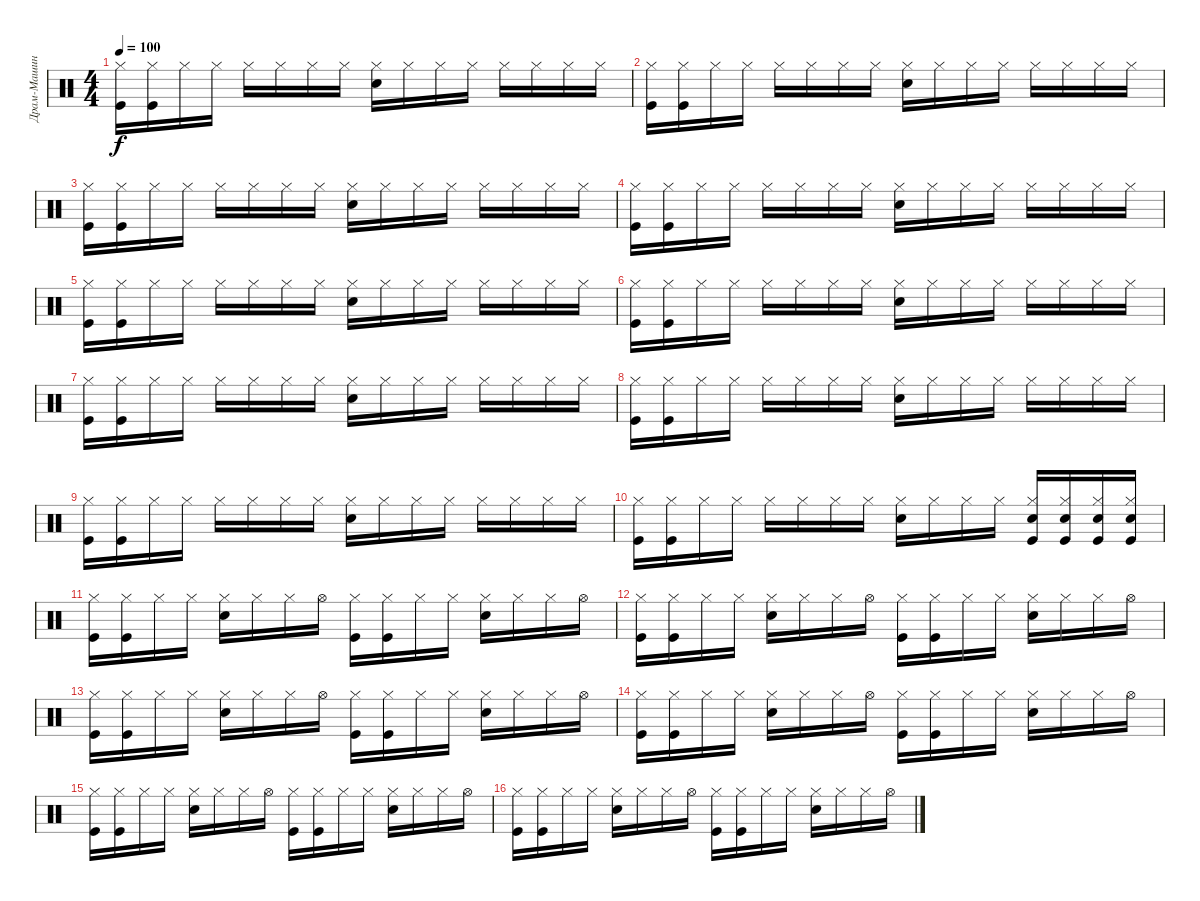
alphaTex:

\track ("Драм-Машина" "Драм-Машин") {instrument percussion}
\staff {score}
\articulation defaults
\ts (4 4)
\tempo 100
\clef neutral
\ks c
("Kick (hit)" "Hi-Hat (closed)").16{dy f} ("Kick (hit)" "Hi-Hat (closed)").16 "Hi-Hat (closed)".16 "Hi-Hat (closed)".16 "Hi-Hat (closed)".16 "Hi-Hat (closed)".16 "Hi-Hat (closed)".16 "Hi-Hat (closed)".16 ("Electric Snare (hit)" "Hi-Hat (closed)").16 "Hi-Hat (closed)".16 "Hi-Hat (closed)".16 "Hi-Hat (closed)".16 "Hi-Hat (closed)".16 "Hi-Hat (closed)".16 "Hi-Hat (closed)".16 "Hi-Hat (closed)".16 |
("Kick (hit)" "Hi-Hat (closed)").16 ("Kick (hit)" "Hi-Hat (closed)").16 "Hi-Hat (closed)".16 "Hi-Hat (closed)".16 "Hi-Hat (closed)".16 "Hi-Hat (closed)".16 "Hi-Hat (closed)".16 "Hi-Hat (closed)".16 ("Electric Snare (hit)" "Hi-Hat (closed)").16 "Hi-Hat (closed)".16 "Hi-Hat (closed)".16 "Hi-Hat (closed)".16 "Hi-Hat (closed)".16 "Hi-Hat (closed)".16 "Hi-Hat (closed)".16 "Hi-Hat (closed)".16 |
("Kick (hit)" "Hi-Hat (closed)").16 ("Kick (hit)" "Hi-Hat (closed)").16 "Hi-Hat (closed)".16 "Hi-Hat (closed)".16 "Hi-Hat (closed)".16 "Hi-Hat (closed)".16 "Hi-Hat (closed)".16 "Hi-Hat (closed)".16 ("Electric Snare (hit)" "Hi-Hat (closed)").16 "Hi-Hat (closed)".16 "Hi-Hat (closed)".16 "Hi-Hat (closed)".16 "Hi-Hat (closed)".16 "Hi-Hat (closed)".16 "Hi-Hat (closed)".16 "Hi-Hat (closed)".16 |
("Kick (hit)" "Hi-Hat (closed)").16 ("Kick (hit)" "Hi-Hat (closed)").16 "Hi-Hat (closed)".16 "Hi-Hat (closed)".16 "Hi-Hat (closed)".16 "Hi-Hat (closed)".16 "Hi-Hat (closed)".16 "Hi-Hat (closed)".16 ("Electric Snare (hit)" "Hi-Hat (closed)").16 "Hi-Hat (closed)".16 "Hi-Hat (closed)".16 "Hi-Hat (closed)".16 "Hi-Hat (closed)".16 "Hi-Hat (closed)".16 "Hi-Hat (closed)".16 "Hi-Hat (closed)".16 |
("Kick (hit)" "Hi-Hat (closed)").16 ("Kick (hit)" "Hi-Hat (closed)").16 "Hi-Hat (closed)".16 "Hi-Hat (closed)".16 "Hi-Hat (closed)".16 "Hi-Hat (closed)".16 "Hi-Hat (closed)".16 "Hi-Hat (closed)".16 ("Electric Snare (hit)" "Hi-Hat (closed)").16 "Hi-Hat (closed)".16 "Hi-Hat (closed)".16 "Hi-Hat (closed)".16 "Hi-Hat (closed)".16 "Hi-Hat (closed)".16 "Hi-Hat (closed)".16 "Hi-Hat (closed)".16 |
("Kick (hit)" "Hi-Hat (closed)").16 ("Kick (hit)" "Hi-Hat (closed)").16 "Hi-Hat (closed)".16 "Hi-Hat (closed)".16 "Hi-Hat (closed)".16 "Hi-Hat (closed)".16 "Hi-Hat (closed)".16 "Hi-Hat (closed)".16 ("Electric Snare (hit)" "Hi-Hat (closed)").16 "Hi-Hat (closed)".16 "Hi-Hat (closed)".16 "Hi-Hat (closed)".16 "Hi-Hat (closed)".16 "Hi-Hat (closed)".16 "Hi-Hat (closed)".16 "Hi-Hat (closed)".16 |
("Kick (hit)" "Hi-Hat (closed)").16 ("Kick (hit)" "Hi-Hat (closed)").16 "Hi-Hat (closed)".16 "Hi-Hat (closed)".16 "Hi-Hat (closed)".16 "Hi-Hat (closed)".16 "Hi-Hat (closed)".16 "Hi-Hat (closed)".16 ("Electric Snare (hit)" "Hi-Hat (closed)").16 "Hi-Hat (closed)".16 "Hi-Hat (closed)".16 "Hi-Hat (closed)".16 "Hi-Hat (closed)".16 "Hi-Hat (closed)".16 "Hi-Hat (closed)".16 "Hi-Hat (closed)".16 |
("Kick (hit)" "Hi-Hat (closed)").16 ("Kick (hit)" "Hi-Hat (closed)").16 "Hi-Hat (closed)".16 "Hi-Hat (closed)".16 "Hi-Hat (closed)".16 "Hi-Hat (closed)".16 "Hi-Hat (closed)".16 "Hi-Hat (closed)".16 ("Electric Snare (hit)" "Hi-Hat (closed)").16 "Hi-Hat (closed)".16 "Hi-Hat (closed)".16 "Hi-Hat (closed)".16 "Hi-Hat (closed)".16 "Hi-Hat (closed)".16 "Hi-Hat (closed)".16 "Hi-Hat (closed)".16 |
("Kick (hit)" "Hi-Hat (closed)").16 ("Kick (hit)" "Hi-Hat (closed)").16 "Hi-Hat (closed)".16 "Hi-Hat (closed)".16 "Hi-Hat (closed)".16 "Hi-Hat (closed)".16 "Hi-Hat (closed)".16 "Hi-Hat (closed)".16 ("Electric Snare (hit)" "Hi-Hat (closed)").16 "Hi-Hat (closed)".16 "Hi-Hat (closed)".16 "Hi-Hat (closed)".16 "Hi-Hat (closed)".16 "Hi-Hat (closed)".16 "Hi-Hat (closed)".16 "Hi-Hat (closed)".16 |
("Kick (hit)" "Hi-Hat (closed)").16 ("Kick (hit)" "Hi-Hat (closed)").16 "Hi-Hat (closed)".16 "Hi-Hat (closed)".16 "Hi-Hat (closed)".16 "Hi-Hat (closed)".16 "Hi-Hat (closed)".16 "Hi-Hat (closed)".16 ("Electric Snare (hit)" "Hi-Hat (closed)").16 "Hi-Hat (closed)".16 "Hi-Hat (closed)".16 "Hi-Hat (closed)".16 ("Kick (hit)" "Electric Snare (hit)" "Hi-Hat (closed)").16 ("Kick (hit)" "Electric Snare (hit)" "Hi-Hat (closed)").16 ("Kick (hit)" "Electric Snare (hit)" "Hi-Hat (closed)").16 ("Kick (hit)" "Electric Snare (hit)" "Hi-Hat (closed)").16 |
("Kick (hit)" "Hi-Hat (closed)").16 ("Kick (hit)" "Hi-Hat (closed)").16 "Hi-Hat (closed)".16 "Hi-Hat (closed)".16 ("Hi-Hat (closed)" "Electric Snare (hit)").16 "Hi-Hat (closed)".16 "Hi-Hat (closed)".16 "Hi-Hat (open)".16 ("Kick (hit)" "Hi-Hat (closed)").16 ("Kick (hit)" "Hi-Hat (closed)").16 "Hi-Hat (closed)".16 "Hi-Hat (closed)".16 ("Hi-Hat (closed)" "Electric Snare (hit)").16 "Hi-Hat (closed)".16 "Hi-Hat (closed)".16 "Hi-Hat (open)".16 |
("Kick (hit)" "Hi-Hat (closed)").16 ("Kick (hit)" "Hi-Hat (closed)").16 "Hi-Hat (closed)".16 "Hi-Hat (closed)".16 ("Hi-Hat (closed)" "Electric Snare (hit)").16 "Hi-Hat (closed)".16 "Hi-Hat (closed)".16 "Hi-Hat (open)".16 ("Kick (hit)" "Hi-Hat (closed)").16 ("Kick (hit)" "Hi-Hat (closed)").16 "Hi-Hat (closed)".16 "Hi-Hat (closed)".16 ("Hi-Hat (closed)" "Electric Snare (hit)").16 "Hi-Hat (closed)".16 "Hi-Hat (closed)".16 "Hi-Hat (open)".16 |
("Kick (hit)" "Hi-Hat (closed)").16 ("Kick (hit)" "Hi-Hat (closed)").16 "Hi-Hat (closed)".16 "Hi-Hat (closed)".16 ("Hi-Hat (closed)" "Electric Snare (hit)").16 "Hi-Hat (closed)".16 "Hi-Hat (closed)".16 "Hi-Hat (open)".16 ("Kick (hit)" "Hi-Hat (closed)").16 ("Kick (hit)" "Hi-Hat (closed)").16 "Hi-Hat (closed)".16 "Hi-Hat (closed)".16 ("Hi-Hat (closed)" "Electric Snare (hit)").16 "Hi-Hat (closed)".16 "Hi-Hat (closed)".16 "Hi-Hat (open)".16 |
("Kick (hit)" "Hi-Hat (closed)").16 ("Kick (hit)" "Hi-Hat (closed)").16 "Hi-Hat (closed)".16 "Hi-Hat (closed)".16 ("Hi-Hat (closed)" "Electric Snare (hit)").16 "Hi-Hat (closed)".16 "Hi-Hat (closed)".16 "Hi-Hat (open)".16 ("Kick (hit)" "Hi-Hat (closed)").16 ("Kick (hit)" "Hi-Hat (closed)").16 "Hi-Hat (closed)".16 "Hi-Hat (closed)".16 ("Hi-Hat (closed)" "Electric Snare (hit)").16 "Hi-Hat (closed)".16 "Hi-Hat (closed)".16 "Hi-Hat (open)".16 |
("Kick (hit)" "Hi-Hat (closed)").16 ("Kick (hit)" "Hi-Hat (closed)").16 "Hi-Hat (closed)".16 "Hi-Hat (closed)".16 ("Hi-Hat (closed)" "Electric Snare (hit)").16 "Hi-Hat (closed)".16 "Hi-Hat (closed)".16 "Hi-Hat (open)".16 ("Kick (hit)" "Hi-Hat (closed)").16 ("Kick (hit)" "Hi-Hat (closed)").16 "Hi-Hat (closed)".16 "Hi-Hat (closed)".16 ("Hi-Hat (closed)" "Electric Snare (hit)").16 "Hi-Hat (closed)".16 "Hi-Hat (closed)".16 "Hi-Hat (open)".16 |
("Kick (hit)" "Hi-Hat (closed)").16 ("Kick (hit)" "Hi-Hat (closed)").16 "Hi-Hat (closed)".16 "Hi-Hat (closed)".16 ("Hi-Hat (closed)" "Electric Snare (hit)").16 "Hi-Hat (closed)".16 "Hi-Hat (closed)".16 "Hi-Hat (open)".16 ("Kick (hit)" "Hi-Hat (closed)").16 ("Kick (hit)" "Hi-Hat (closed)").16 "Hi-Hat (closed)".16 "Hi-Hat (closed)".16 ("Hi-Hat (closed)" "Electric Snare (hit)").16 "Hi-Hat (closed)".16 "Hi-Hat (closed)".16 "Hi-Hat (open)".16
